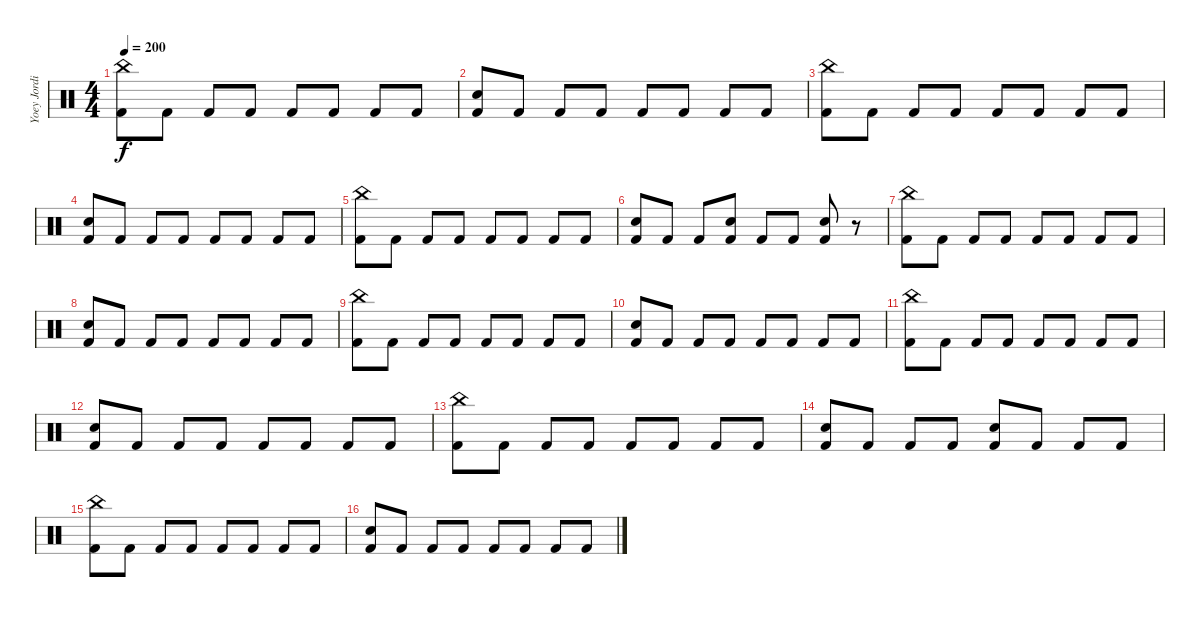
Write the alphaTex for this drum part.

\track ("Yoey Jordison" "Yoey Jordi") {instrument percussion}
\staff {score}
\articulation defaults
\ts (4 4)
\tempo 200
\clef neutral
\ks c
("Kick (hit) 2" "China (hit)").8{dy f} "Kick (hit) 2".8 "Kick (hit) 2".8 "Kick (hit) 2".8 "Kick (hit) 2".8 "Kick (hit) 2".8 "Kick (hit) 2".8 "Kick (hit) 2".8 |
("Kick (hit) 2" "Snare (hit) 2").8 "Kick (hit) 2".8 "Kick (hit) 2".8 "Kick (hit) 2".8 "Kick (hit) 2".8 "Kick (hit) 2".8 "Kick (hit) 2".8 "Kick (hit) 2".8 |
("Kick (hit) 2" "China (hit)").8 "Kick (hit) 2".8 "Kick (hit) 2".8 "Kick (hit) 2".8 "Kick (hit) 2".8 "Kick (hit) 2".8 "Kick (hit) 2".8 "Kick (hit) 2".8 |
("Kick (hit) 2" "Snare (hit) 2").8 "Kick (hit) 2".8 "Kick (hit) 2".8 "Kick (hit) 2".8 "Kick (hit) 2".8 "Kick (hit) 2".8 "Kick (hit) 2".8 "Kick (hit) 2".8 |
("Kick (hit) 2" "China (hit)").8 "Kick (hit) 2".8 "Kick (hit) 2".8 "Kick (hit) 2".8 "Kick (hit) 2".8 "Kick (hit) 2".8 "Kick (hit) 2".8 "Kick (hit) 2".8 |
("Kick (hit) 2" "Snare (hit) 2").8 "Kick (hit) 2".8 "Kick (hit) 2".8 ("Kick (hit) 2" "Snare (hit) 2").8 "Kick (hit) 2".8 "Kick (hit) 2".8 ("Kick (hit) 2" "Snare (hit) 2").8 r.8 |
("Kick (hit) 2" "China (hit)").8 "Kick (hit) 2".8 "Kick (hit) 2".8 "Kick (hit) 2".8 "Kick (hit) 2".8 "Kick (hit) 2".8 "Kick (hit) 2".8 "Kick (hit) 2".8 |
("Kick (hit) 2" "Snare (hit) 2").8 "Kick (hit) 2".8 "Kick (hit) 2".8 "Kick (hit) 2".8 "Kick (hit) 2".8 "Kick (hit) 2".8 "Kick (hit) 2".8 "Kick (hit) 2".8 |
("Kick (hit) 2" "China (hit)").8 "Kick (hit) 2".8 "Kick (hit) 2".8 "Kick (hit) 2".8 "Kick (hit) 2".8 "Kick (hit) 2".8 "Kick (hit) 2".8 "Kick (hit) 2".8 |
("Kick (hit) 2" "Snare (hit) 2").8 "Kick (hit) 2".8 "Kick (hit) 2".8 "Kick (hit) 2".8 "Kick (hit) 2".8 "Kick (hit) 2".8 "Kick (hit) 2".8 "Kick (hit) 2".8 |
("Kick (hit) 2" "China (hit)").8 "Kick (hit) 2".8 "Kick (hit) 2".8 "Kick (hit) 2".8 "Kick (hit) 2".8 "Kick (hit) 2".8 "Kick (hit) 2".8 "Kick (hit) 2".8 |
("Kick (hit) 2" "Snare (hit) 2").8 "Kick (hit) 2".8 "Kick (hit) 2".8 "Kick (hit) 2".8 "Kick (hit) 2".8 "Kick (hit) 2".8 "Kick (hit) 2".8 "Kick (hit) 2".8 |
("Kick (hit) 2" "China (hit)").8 "Kick (hit) 2".8 "Kick (hit) 2".8 "Kick (hit) 2".8 "Kick (hit) 2".8 "Kick (hit) 2".8 "Kick (hit) 2".8 "Kick (hit) 2".8 |
("Kick (hit) 2" "Snare (hit) 2").8 "Kick (hit) 2".8 "Kick (hit) 2".8 "Kick (hit) 2".8 ("Kick (hit) 2" "Snare (hit) 2").8 "Kick (hit) 2".8 "Kick (hit) 2".8 "Kick (hit) 2".8 |
("Kick (hit) 2" "China (hit)").8 "Kick (hit) 2".8 "Kick (hit) 2".8 "Kick (hit) 2".8 "Kick (hit) 2".8 "Kick (hit) 2".8 "Kick (hit) 2".8 "Kick (hit) 2".8 |
("Kick (hit) 2" "Snare (hit) 2").8 "Kick (hit) 2".8 "Kick (hit) 2".8 "Kick (hit) 2".8 "Kick (hit) 2".8 "Kick (hit) 2".8 "Kick (hit) 2".8 "Kick (hit) 2".8
